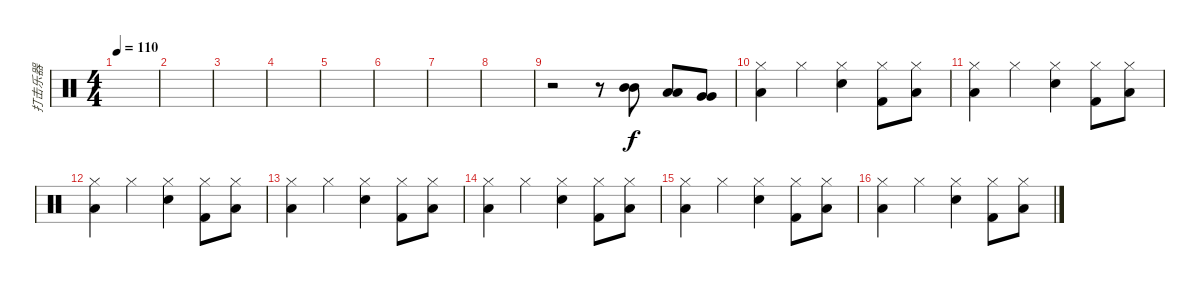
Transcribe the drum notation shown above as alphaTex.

\track ("打击乐器" "打击乐器") {instrument percussion}
\staff {score}
\articulation defaults
\ts (4 4)
\tempo 110
\clef neutral
\ks c
|
|
|
|
|
|
|
|
r.2 r.8 ("Mid Tom (hit)" "Mid Tom (hit)").8 ("Low Tom (hit)" "Low Tom (hit)").8 ("Very Low Tom (hit)" "Very Low Tom (hit)").8 |
("Hi-Hat (closed)" "Low Floor Tom (hit)").4 "Hi-Hat (closed)".4 ("Hi-Hat (closed)" "Electric Snare (hit)").4 ("Hi-Hat (closed)" "Kick (hit) 2").8 ("Hi-Hat (closed)" "Low Floor Tom (hit)").8 |
("Hi-Hat (closed)" "Low Floor Tom (hit)").4 "Hi-Hat (closed)".4 ("Hi-Hat (closed)" "Electric Snare (hit)").4 ("Hi-Hat (closed)" "Kick (hit) 2").8 ("Hi-Hat (closed)" "Low Floor Tom (hit)").8 |
("Hi-Hat (closed)" "Low Floor Tom (hit)").4 "Hi-Hat (closed)".4 ("Hi-Hat (closed)" "Electric Snare (hit)").4 ("Hi-Hat (closed)" "Kick (hit) 2").8 ("Hi-Hat (closed)" "Low Floor Tom (hit)").8 |
("Hi-Hat (closed)" "Low Floor Tom (hit)").4 "Hi-Hat (closed)".4 ("Hi-Hat (closed)" "Electric Snare (hit)").4 ("Hi-Hat (closed)" "Kick (hit) 2").8 ("Hi-Hat (closed)" "Low Floor Tom (hit)").8 |
("Hi-Hat (closed)" "Low Floor Tom (hit)").4 "Hi-Hat (closed)".4 ("Hi-Hat (closed)" "Electric Snare (hit)").4 ("Hi-Hat (closed)" "Kick (hit) 2").8 ("Hi-Hat (closed)" "Low Floor Tom (hit)").8 |
("Hi-Hat (closed)" "Low Floor Tom (hit)").4 "Hi-Hat (closed)".4 ("Hi-Hat (closed)" "Electric Snare (hit)").4 ("Hi-Hat (closed)" "Kick (hit) 2").8 ("Hi-Hat (closed)" "Low Floor Tom (hit)").8 |
("Hi-Hat (closed)" "Low Floor Tom (hit)").4 "Hi-Hat (closed)".4 ("Hi-Hat (closed)" "Electric Snare (hit)").4 ("Hi-Hat (closed)" "Kick (hit) 2").8 ("Hi-Hat (closed)" "Low Floor Tom (hit)").8
